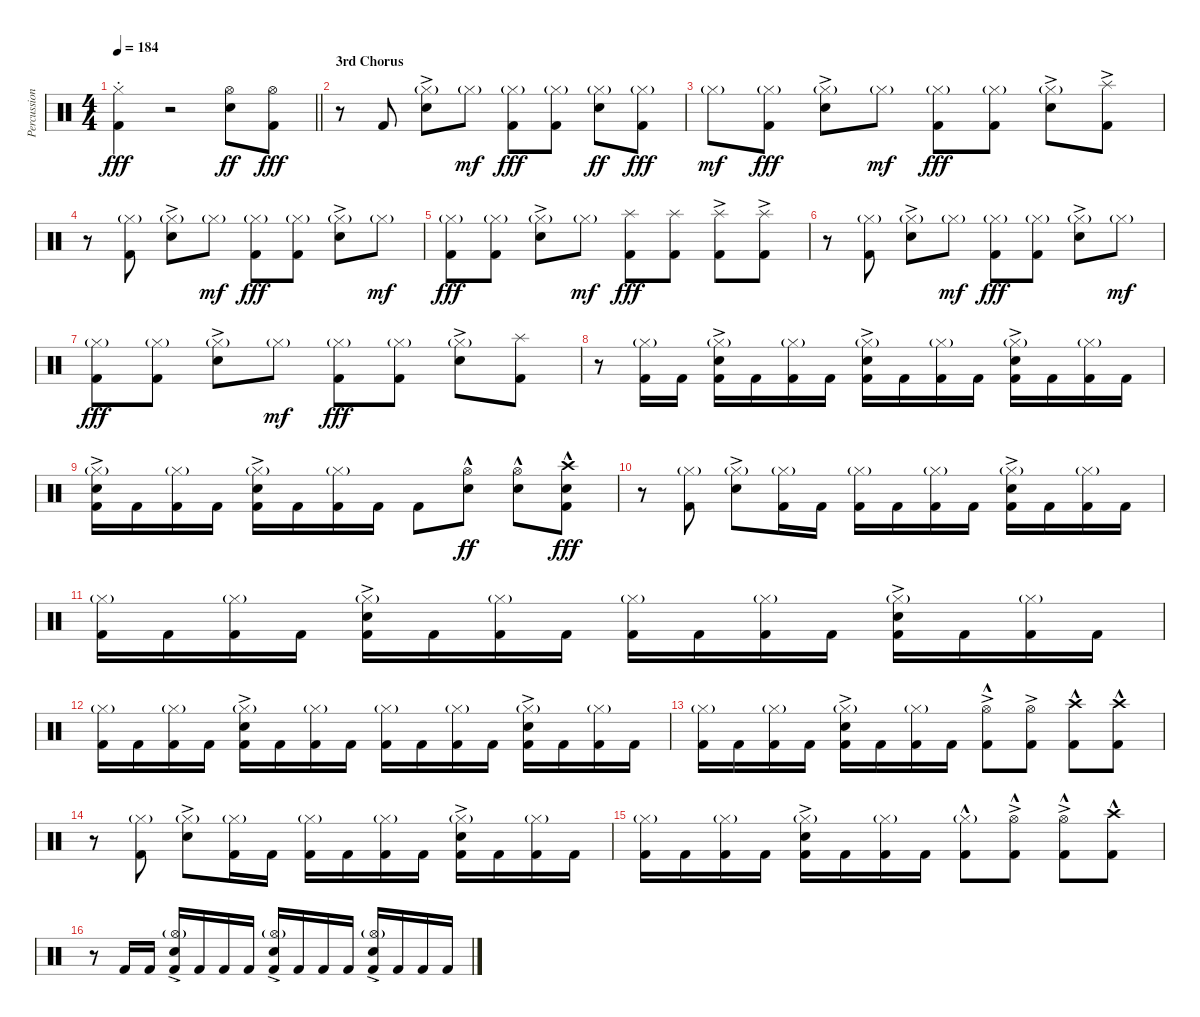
\track ("Percussion , Drums - Travis Smith" "Percussion") {instrument percussion}
\staff {score}
\articulation defaults
\ts (4 4)
\tempo 184
\clef neutral
\barLineRight lightlight
\ks c
("Hi-Hat (closed)"{st} "Kick (hit) 2"{st}).4{dy fff} r.2 ("Hi-Hat (open)" "Electric Snare (hit)").8{dy ff} ("Hi-Hat (open)" "Kick (hit) 2").8{dy fff} |
\section ("" "3rd Chorus")
r.8 "Kick (hit) 2".8 ("Hi-Hat (closed)"{g} "Electric Snare (hit)"{ac}).8 "Hi-Hat (closed)"{g}.8{dy mf} ("Hi-Hat (closed)"{g} "Kick (hit) 2").8{dy fff} ("Hi-Hat (closed)"{g} "Kick (hit) 2").8 ("Hi-Hat (closed)"{g} "Electric Snare (hit)").8{dy ff} ("Hi-Hat (closed)"{g} "Kick (hit) 2").8{dy fff} |
"Hi-Hat (closed)"{g}.8{dy mf} ("Hi-Hat (closed)"{g} "Kick (hit) 2").8{dy fff} ("Hi-Hat (closed)"{g} "Electric Snare (hit)"{ac}).8 "Hi-Hat (closed)"{g}.8{dy mf} ("Hi-Hat (closed)"{g} "Kick (hit) 2").8{dy fff} ("Hi-Hat (closed)"{g} "Kick (hit) 2").8 ("Hi-Hat (closed)"{g} "Electric Snare (hit)"{ac}).8 ("Splash (hit)"{ac} "Kick (hit) 2").8 |
r.8 ("Hi-Hat (closed)"{g} "Kick (hit) 2").8 ("Hi-Hat (closed)"{g} "Electric Snare (hit)"{ac}).8 "Hi-Hat (closed)"{g}.8{dy mf} ("Hi-Hat (closed)"{g} "Kick (hit) 2").8{dy fff} ("Hi-Hat (closed)"{g} "Kick (hit) 2").8 ("Hi-Hat (closed)"{g} "Electric Snare (hit)"{ac}).8 "Hi-Hat (closed)"{g}.8{dy mf} |
("Hi-Hat (closed)"{g} "Kick (hit) 2").8{dy fff} ("Hi-Hat (closed)"{g} "Kick (hit) 2").8 ("Hi-Hat (closed)"{g} "Electric Snare (hit)"{ac}).8 "Hi-Hat (closed)"{g}.8{dy mf} ("Splash (hit)" "Kick (hit) 2").8{dy fff} ("Splash (hit)" "Kick (hit) 2").8 ("Splash (hit)"{ac} "Kick (hit) 2").8 ("Splash (hit)"{ac} "Kick (hit) 2").8 |
r.8 ("Hi-Hat (closed)"{g} "Kick (hit) 2").8 ("Hi-Hat (closed)"{g} "Electric Snare (hit)"{ac}).8 "Hi-Hat (closed)"{g}.8{dy mf} ("Hi-Hat (closed)"{g} "Kick (hit) 2").8{dy fff} ("Hi-Hat (closed)"{g} "Kick (hit) 2").8 ("Hi-Hat (closed)"{g} "Electric Snare (hit)"{ac}).8 "Hi-Hat (closed)"{g}.8{dy mf} |
("Hi-Hat (closed)"{g} "Kick (hit) 2").8{dy fff} ("Hi-Hat (closed)"{g} "Kick (hit) 2").8 ("Hi-Hat (closed)"{g} "Electric Snare (hit)"{ac}).8 "Hi-Hat (closed)"{g}.8{dy mf} ("Hi-Hat (closed)"{g} "Kick (hit) 2").8{dy fff} ("Hi-Hat (closed)"{g} "Kick (hit) 2").8 ("Hi-Hat (closed)"{g} "Electric Snare (hit)"{ac}).8 ("Splash (hit)" "Kick (hit) 2").8 |
r.8 ("Hi-Hat (closed)"{g} "Kick (hit) 2").16 "Kick (hit) 2".16 ("Hi-Hat (closed)"{g} "Electric Snare (hit)"{ac} "Kick (hit) 2").16 "Kick (hit) 2".16 ("Hi-Hat (closed)"{g} "Kick (hit) 2").16 "Kick (hit) 2".16 ("Hi-Hat (closed)"{g} "Electric Snare (hit)"{ac} "Kick (hit) 2").16 "Kick (hit) 2".16 ("Hi-Hat (closed)"{g} "Kick (hit) 2").16 "Kick (hit) 2".16 ("Hi-Hat (closed)"{g} "Electric Snare (hit)"{ac} "Kick (hit) 2").16 "Kick (hit) 2".16 ("Hi-Hat (closed)"{g} "Kick (hit) 2").16 "Kick (hit) 2".16 |
("Hi-Hat (closed)"{g} "Electric Snare (hit)"{ac} "Kick (hit) 2").16 "Kick (hit) 2".16 ("Hi-Hat (closed)"{g} "Kick (hit) 2").16 "Kick (hit) 2".16 ("Hi-Hat (closed)"{g} "Electric Snare (hit)"{ac} "Kick (hit) 2").16 "Kick (hit) 2".16 ("Hi-Hat (closed)"{g} "Kick (hit) 2").16 "Kick (hit) 2".16 "Kick (hit) 2".8 ("Hi-Hat (open)"{hac} "Electric Snare (hit)"{hac}).8{dy ff} ("Hi-Hat (open)"{hac} "Electric Snare (hit)"{hac}).8 ("Crash high (hit)"{hac} "Electric Snare (hit)"{hac} "Kick (hit) 2"{hac}).8{dy fff} |
r.8 ("Hi-Hat (closed)"{g} "Kick (hit) 2").8 ("Hi-Hat (closed)"{g} "Electric Snare (hit)"{ac}).8 ("Hi-Hat (closed)"{g} "Kick (hit) 2").16 "Kick (hit) 2".16 ("Hi-Hat (closed)"{g} "Kick (hit) 2").16 "Kick (hit) 2".16 ("Hi-Hat (closed)"{g} "Kick (hit) 2").16 "Kick (hit) 2".16 ("Hi-Hat (closed)"{g} "Electric Snare (hit)"{ac} "Kick (hit) 2").16 "Kick (hit) 2".16 ("Hi-Hat (closed)"{g} "Kick (hit) 2").16 "Kick (hit) 2".16 |
("Hi-Hat (closed)"{g} "Kick (hit) 2").16 "Kick (hit) 2".16 ("Hi-Hat (closed)"{g} "Kick (hit) 2").16 "Kick (hit) 2".16 ("Hi-Hat (closed)"{g} "Electric Snare (hit)"{ac} "Kick (hit) 2").16 "Kick (hit) 2".16 ("Hi-Hat (closed)"{g} "Kick (hit) 2").16 "Kick (hit) 2".16 ("Hi-Hat (closed)"{g} "Kick (hit) 2").16 "Kick (hit) 2".16 ("Hi-Hat (closed)"{g} "Kick (hit) 2").16 "Kick (hit) 2".16 ("Hi-Hat (closed)"{g} "Electric Snare (hit)"{ac} "Kick (hit) 2").16 "Kick (hit) 2".16 ("Hi-Hat (closed)"{g} "Kick (hit) 2").16 "Kick (hit) 2".16 |
("Hi-Hat (closed)"{g} "Kick (hit) 2").16 "Kick (hit) 2".16 ("Hi-Hat (closed)"{g} "Kick (hit) 2").16 "Kick (hit) 2".16 ("Hi-Hat (closed)"{g} "Electric Snare (hit)"{ac} "Kick (hit) 2").16 "Kick (hit) 2".16 ("Hi-Hat (closed)"{g} "Kick (hit) 2").16 "Kick (hit) 2".16 ("Hi-Hat (closed)"{g} "Kick (hit) 2").16 "Kick (hit) 2".16 ("Hi-Hat (closed)"{g} "Kick (hit) 2").16 "Kick (hit) 2".16 ("Hi-Hat (closed)"{g} "Electric Snare (hit)"{ac} "Kick (hit) 2").16 "Kick (hit) 2".16 ("Hi-Hat (closed)"{g} "Kick (hit) 2").16 "Kick (hit) 2".16 |
("Hi-Hat (closed)"{g} "Kick (hit) 2").16 "Kick (hit) 2".16 ("Hi-Hat (closed)"{g} "Kick (hit) 2").16 "Kick (hit) 2".16 ("Hi-Hat (closed)"{g} "Electric Snare (hit)"{ac} "Kick (hit) 2").16 "Kick (hit) 2".16 ("Hi-Hat (closed)"{g} "Kick (hit) 2").16 "Kick (hit) 2".16 ("Hi-Hat (open)"{ac} "Kick (hit) 2"{hac}).8 ("Hi-Hat (open)"{ac} "Kick (hit) 2").8 ("Crash high (hit)"{hac} "Kick (hit) 2"{hac}).8 ("Crash high (hit)"{hac} "Kick (hit) 2"{hac}).8 |
r.8 ("Hi-Hat (closed)"{g} "Kick (hit) 2").8 ("Hi-Hat (closed)"{g} "Electric Snare (hit)"{ac}).8 ("Hi-Hat (closed)"{g} "Kick (hit) 2").16 "Kick (hit) 2".16 ("Hi-Hat (closed)"{g} "Kick (hit) 2").16 "Kick (hit) 2".16 ("Hi-Hat (closed)"{g} "Kick (hit) 2").16 "Kick (hit) 2".16 ("Hi-Hat (closed)"{g} "Electric Snare (hit)"{ac} "Kick (hit) 2").16 "Kick (hit) 2".16 ("Hi-Hat (closed)"{g} "Kick (hit) 2").16 "Kick (hit) 2".16 |
("Hi-Hat (closed)"{g} "Kick (hit) 2").16 "Kick (hit) 2".16 ("Hi-Hat (closed)"{g} "Kick (hit) 2").16 "Kick (hit) 2".16 ("Hi-Hat (closed)"{g} "Electric Snare (hit)"{ac} "Kick (hit) 2").16 "Kick (hit) 2".16 ("Hi-Hat (closed)"{g} "Kick (hit) 2").16 "Kick (hit) 2".16 ("Hi-Hat (closed)"{g} "Kick (hit) 2"{hac}).8 ("Hi-Hat (open)"{ac} "Kick (hit) 2"{hac}).8 ("Hi-Hat (open)"{ac} "Kick (hit) 2"{hac}).8 ("Crash high (hit)" "Kick (hit) 2"{hac}).8 |
r.8 "Kick (hit) 2".16 "Kick (hit) 2".16 ("Hi-Hat (open)"{g} "Electric Snare (hit)"{ac} "Kick (hit) 2").16 "Kick (hit) 2".16 "Kick (hit) 2".16 "Kick (hit) 2".16 ("Hi-Hat (open)"{g} "Electric Snare (hit)"{ac} "Kick (hit) 2").16 "Kick (hit) 2".16 "Kick (hit) 2".16 "Kick (hit) 2".16 ("Hi-Hat (open)"{g} "Electric Snare (hit)"{ac} "Kick (hit) 2").16 "Kick (hit) 2".16 "Kick (hit) 2".16 "Kick (hit) 2".16
